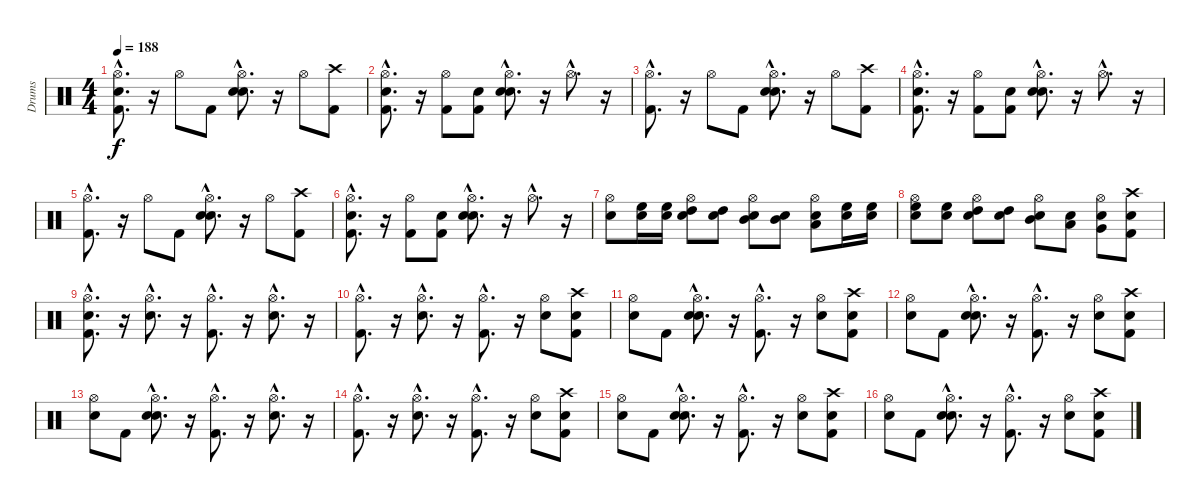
\track ("Drums" "Drums") {instrument percussion}
\staff {score}
\articulation defaults
\ts (4 4)
\tempo 188
\clef neutral
\ks c
("Snare (hit)"{hac} "Kick (hit) 2"{hac} "Hi-Hat (open)"{hac}).8{d dy f} r.16 "Hi-Hat (open)".8 "Kick (hit) 2".8 ("Snare (hit)"{hac} "Snare (hit) 2"{hac} "Hi-Hat (open)"{hac}).8{d} r.16 "Hi-Hat (open)".8 ("Kick (hit) 2" "Crash high (hit)").8 |
("Snare (hit)"{hac} "Kick (hit) 2"{hac} "Hi-Hat (open)"{hac}).8{d} r.16 ("Kick (hit) 2" "Hi-Hat (open)").8 ("Snare (hit)" "Kick (hit) 2").8 ("Snare (hit)"{hac} "Snare (hit) 2"{hac} "Hi-Hat (open)"{hac}).8{d} r.16 "Hi-Hat (open)"{hac}.8{d} r.16 |
("Kick (hit) 2"{hac} "Hi-Hat (open)"{hac}).8{d} r.16 "Hi-Hat (open)".8 "Kick (hit) 2".8 ("Snare (hit)"{hac} "Snare (hit) 2"{hac} "Hi-Hat (open)"{hac}).8{d} r.16 "Hi-Hat (open)".8 ("Kick (hit) 2" "Crash high (hit)").8 |
("Snare (hit)"{hac} "Kick (hit) 2"{hac} "Hi-Hat (open)"{hac}).8{d} r.16 ("Kick (hit) 2" "Hi-Hat (open)").8 ("Snare (hit)" "Kick (hit) 2").8 ("Snare (hit)"{hac} "Snare (hit) 2"{hac} "Hi-Hat (open)"{hac}).8{d} r.16 "Hi-Hat (open)"{hac}.8{d} r.16 |
("Kick (hit) 2"{hac} "Hi-Hat (open)"{hac}).8{d} r.16 "Hi-Hat (open)".8 "Kick (hit) 2".8 ("Snare (hit)"{hac} "Snare (hit) 2"{hac} "Hi-Hat (open)"{hac}).8{d} r.16 "Hi-Hat (open)".8 ("Kick (hit) 2" "Crash high (hit)").8 |
("Snare (hit)"{hac} "Kick (hit) 2"{hac} "Hi-Hat (open)"{hac}).8{d} r.16 ("Kick (hit) 2" "Hi-Hat (open)").8 ("Snare (hit)" "Kick (hit) 2").8 ("Snare (hit)"{hac} "Snare (hit) 2"{hac} "Hi-Hat (open)"{hac}).8{d} r.16 "Hi-Hat (open)"{hac}.8{d} r.16 |
("Snare (hit) 2" "Hi-Hat (open)").8 ("Snare (hit)" "High Floor Tom (hit)").16 ("Snare (hit)" "High Floor Tom (hit)").16 ("Snare (hit)" "Hi-Hat (open)" "High Tom (hit)").8 ("Snare (hit)" "High Tom (hit)").8 ("Snare (hit)" "Hi-Hat (open)" "Mid Tom (hit)").8 ("Snare (hit)" "Mid Tom (hit)").8 ("Snare (hit)" "Low Tom (hit)" "Hi-Hat (open)").8 ("Snare (hit)" "High Floor Tom (hit)").16 ("Snare (hit)" "High Floor Tom (hit)").16 |
("Snare (hit)" "Hi-Hat (open)" "High Floor Tom (hit)").8 ("Snare (hit)" "High Floor Tom (hit)").8 ("Snare (hit)" "Hi-Hat (open)" "High Tom (hit)").8 ("Snare (hit)" "High Tom (hit)").8 ("Snare (hit)" "Hi-Hat (open)" "Mid Tom (hit)").8 ("Snare (hit)" "Low Tom (hit)").8 ("Snare (hit)" "Very Low Tom (hit)" "Hi-Hat (open)").8 ("Snare (hit)" "Kick (hit) 2" "Crash high (hit)").8 |
("Snare (hit)"{hac} "Kick (hit) 2"{hac} "Hi-Hat (open)"{hac}).8{d} r.16 ("Snare (hit) 2"{hac} "Hi-Hat (open)"{hac}).8{d} r.16 ("Kick (hit) 2"{hac} "Hi-Hat (open)"{hac}).8{d} r.16 ("Snare (hit) 2"{hac} "Hi-Hat (open)"{hac}).8{d} r.16 |
("Kick (hit) 2"{hac} "Hi-Hat (open)"{hac}).8{d} r.16 ("Snare (hit) 2"{hac} "Hi-Hat (open)"{hac}).8{d} r.16 ("Kick (hit) 2"{hac} "Hi-Hat (open)"{hac}).8{d} r.16 ("Snare (hit) 2" "Hi-Hat (open)").8 ("Snare (hit)" "Kick (hit) 2" "Crash high (hit)").8 |
("Snare (hit)" "Hi-Hat (open)").8 "Kick (hit) 2".8 ("Snare (hit)"{hac} "Snare (hit) 2"{hac} "Hi-Hat (open)"{hac}).8{d} r.16 ("Kick (hit) 2"{hac} "Hi-Hat (open)"{hac}).8{d} r.16 ("Snare (hit) 2" "Hi-Hat (open)").8 ("Snare (hit)" "Kick (hit) 2" "Crash high (hit)").8 |
("Snare (hit)" "Hi-Hat (open)").8 "Kick (hit) 2".8 ("Snare (hit)"{hac} "Snare (hit) 2"{hac} "Hi-Hat (open)"{hac}).8{d} r.16 ("Kick (hit) 2"{hac} "Hi-Hat (open)"{hac}).8{d} r.16 ("Snare (hit) 2" "Hi-Hat (open)").8 ("Snare (hit)" "Kick (hit) 2" "Crash high (hit)").8 |
("Snare (hit)" "Hi-Hat (open)").8 "Kick (hit) 2".8 ("Snare (hit)"{hac} "Snare (hit) 2"{hac} "Hi-Hat (open)"{hac}).8{d} r.16 ("Kick (hit) 2"{hac} "Hi-Hat (open)"{hac}).8{d} r.16 ("Snare (hit) 2"{hac} "Hi-Hat (open)"{hac}).8{d} r.16 |
("Kick (hit) 2"{hac} "Hi-Hat (open)"{hac}).8{d} r.16 ("Snare (hit) 2"{hac} "Hi-Hat (open)"{hac}).8{d} r.16 ("Kick (hit) 2"{hac} "Hi-Hat (open)"{hac}).8{d} r.16 ("Snare (hit) 2" "Hi-Hat (open)").8 ("Snare (hit)" "Kick (hit) 2" "Crash high (hit)").8 |
("Snare (hit)" "Hi-Hat (open)").8 "Kick (hit) 2".8 ("Snare (hit)"{hac} "Snare (hit) 2"{hac} "Hi-Hat (open)"{hac}).8{d} r.16 ("Kick (hit) 2"{hac} "Hi-Hat (open)"{hac}).8{d} r.16 ("Snare (hit) 2" "Hi-Hat (open)").8 ("Snare (hit)" "Kick (hit) 2" "Crash high (hit)").8 |
("Snare (hit)" "Hi-Hat (open)").8 "Kick (hit) 2".8 ("Snare (hit)"{hac} "Snare (hit) 2"{hac} "Hi-Hat (open)"{hac}).8{d} r.16 ("Kick (hit) 2"{hac} "Hi-Hat (open)"{hac}).8{d} r.16 ("Snare (hit) 2" "Hi-Hat (open)").8 ("Snare (hit)" "Kick (hit) 2" "Crash high (hit)").8
